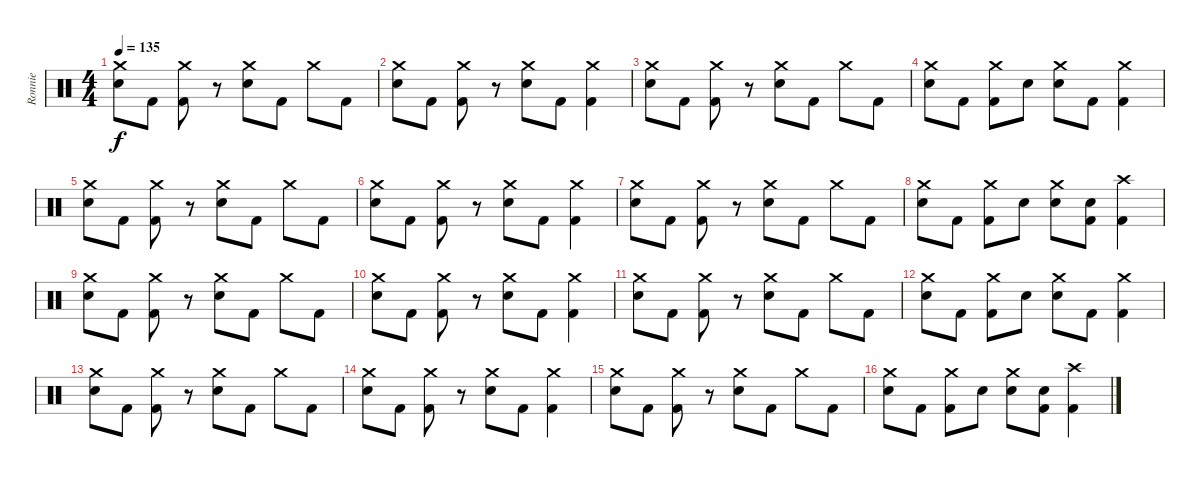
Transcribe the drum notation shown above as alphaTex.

\track ("Ronnie" "Ronnie") {instrument percussion}
\staff {score}
\articulation defaults
\ts (4 4)
\tempo 135
\clef neutral
\ks c
("Crash medium (hit)" "Electric Snare (hit)").8{dy f} "Kick (hit) 2".8 ("Kick (hit) 2" "Crash medium (hit)").8 r.8 ("Crash medium (hit)" "Electric Snare (hit)").8 "Kick (hit) 2".8 "Crash medium (hit)".8 "Kick (hit) 2".8 |
("Crash medium (hit)" "Electric Snare (hit)").8 "Kick (hit) 2".8 ("Kick (hit) 2" "Crash medium (hit)").8 r.8 ("Crash medium (hit)" "Electric Snare (hit)").8 "Kick (hit) 2".8 ("Kick (hit) 2" "Crash medium (hit)").4 |
("Crash medium (hit)" "Electric Snare (hit)").8 "Kick (hit) 2".8 ("Kick (hit) 2" "Crash medium (hit)").8 r.8 ("Crash medium (hit)" "Electric Snare (hit)").8 "Kick (hit) 2".8 "Crash medium (hit)".8 "Kick (hit) 2".8 |
("Crash medium (hit)" "Electric Snare (hit)").8 "Kick (hit) 2".8 ("Kick (hit) 2" "Crash medium (hit)").8 "Electric Snare (hit)".8 ("Crash medium (hit)" "Electric Snare (hit)").8 "Kick (hit) 2".8 ("Kick (hit) 2" "Crash medium (hit)").4 |
("Crash medium (hit)" "Electric Snare (hit)").8 "Kick (hit) 2".8 ("Kick (hit) 2" "Crash medium (hit)").8 r.8 ("Crash medium (hit)" "Electric Snare (hit)").8 "Kick (hit) 2".8 "Crash medium (hit)".8 "Kick (hit) 2".8 |
("Crash medium (hit)" "Electric Snare (hit)").8 "Kick (hit) 2".8 ("Kick (hit) 2" "Crash medium (hit)").8 r.8 ("Crash medium (hit)" "Electric Snare (hit)").8 "Kick (hit) 2".8 ("Kick (hit) 2" "Crash medium (hit)").4 |
("Crash medium (hit)" "Electric Snare (hit)").8 "Kick (hit) 2".8 ("Kick (hit) 2" "Crash medium (hit)").8 r.8 ("Crash medium (hit)" "Electric Snare (hit)").8 "Kick (hit) 2".8 "Crash medium (hit)".8 "Kick (hit) 2".8 |
("Crash medium (hit)" "Electric Snare (hit)").8 "Kick (hit) 2".8 ("Kick (hit) 2" "Crash medium (hit)").8 "Electric Snare (hit)".8 ("Crash medium (hit)" "Electric Snare (hit)").8 ("Kick (hit) 2" "Electric Snare (hit)").8 ("Crash high (hit)" "Kick (hit) 2").4 |
("Crash medium (hit)" "Electric Snare (hit)").8 "Kick (hit) 2".8 ("Kick (hit) 2" "Crash medium (hit)").8 r.8 ("Crash medium (hit)" "Electric Snare (hit)").8 "Kick (hit) 2".8 "Crash medium (hit)".8 "Kick (hit) 2".8 |
("Crash medium (hit)" "Electric Snare (hit)").8 "Kick (hit) 2".8 ("Kick (hit) 2" "Crash medium (hit)").8 r.8 ("Crash medium (hit)" "Electric Snare (hit)").8 "Kick (hit) 2".8 ("Kick (hit) 2" "Crash medium (hit)").4 |
("Crash medium (hit)" "Electric Snare (hit)").8 "Kick (hit) 2".8 ("Kick (hit) 2" "Crash medium (hit)").8 r.8 ("Crash medium (hit)" "Electric Snare (hit)").8 "Kick (hit) 2".8 "Crash medium (hit)".8 "Kick (hit) 2".8 |
("Crash medium (hit)" "Electric Snare (hit)").8 "Kick (hit) 2".8 ("Kick (hit) 2" "Crash medium (hit)").8 "Electric Snare (hit)".8 ("Crash medium (hit)" "Electric Snare (hit)").8 "Kick (hit) 2".8 ("Kick (hit) 2" "Crash medium (hit)").4 |
("Crash medium (hit)" "Electric Snare (hit)").8 "Kick (hit) 2".8 ("Kick (hit) 2" "Crash medium (hit)").8 r.8 ("Crash medium (hit)" "Electric Snare (hit)").8 "Kick (hit) 2".8 "Crash medium (hit)".8 "Kick (hit) 2".8 |
("Crash medium (hit)" "Electric Snare (hit)").8 "Kick (hit) 2".8 ("Kick (hit) 2" "Crash medium (hit)").8 r.8 ("Crash medium (hit)" "Electric Snare (hit)").8 "Kick (hit) 2".8 ("Kick (hit) 2" "Crash medium (hit)").4 |
("Crash medium (hit)" "Electric Snare (hit)").8 "Kick (hit) 2".8 ("Kick (hit) 2" "Crash medium (hit)").8 r.8 ("Crash medium (hit)" "Electric Snare (hit)").8 "Kick (hit) 2".8 "Crash medium (hit)".8 "Kick (hit) 2".8 |
("Crash medium (hit)" "Electric Snare (hit)").8 "Kick (hit) 2".8 ("Kick (hit) 2" "Crash medium (hit)").8 "Electric Snare (hit)".8 ("Crash medium (hit)" "Electric Snare (hit)").8 ("Kick (hit) 2" "Electric Snare (hit)").8 ("Crash high (hit)" "Kick (hit) 2").4
